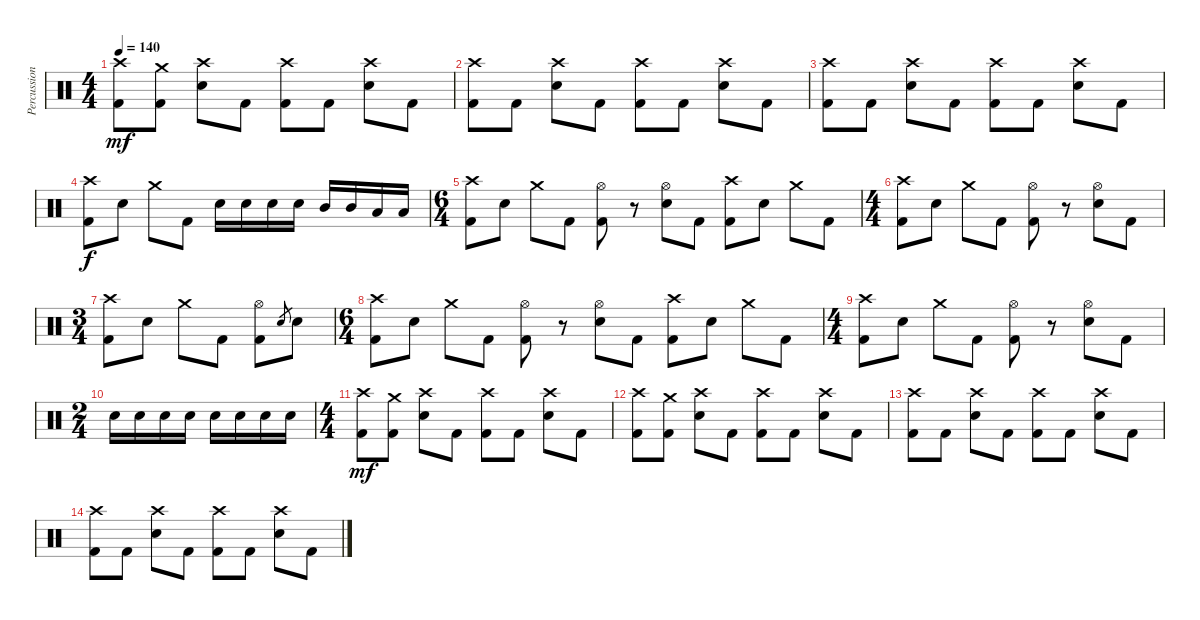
\track ("Percussions" "Percussion") {instrument percussion}
\staff {score}
\articulation defaults
\ts (4 4)
\tempo 140
\clef neutral
\ks c
("Kick (hit) 2" "Crash high (hit)").8{dy mf} ("Kick (hit) 2" "Crash medium (hit)").8 ("Electric Snare (hit)" "Crash high (hit)").8 "Kick (hit) 2".8 ("Kick (hit) 2" "Crash high (hit)").8 "Kick (hit) 2".8 ("Electric Snare (hit)" "Crash high (hit)").8 "Kick (hit) 2".8 |
("Kick (hit) 2" "Crash high (hit)").8 "Kick (hit) 2".8 ("Electric Snare (hit)" "Crash high (hit)").8 "Kick (hit) 2".8 ("Kick (hit) 2" "Crash high (hit)").8 "Kick (hit) 2".8 ("Electric Snare (hit)" "Crash high (hit)").8 "Kick (hit) 2".8 |
("Kick (hit) 2" "Crash high (hit)").8 "Kick (hit) 2".8 ("Electric Snare (hit)" "Crash high (hit)").8 "Kick (hit) 2".8 ("Kick (hit) 2" "Crash high (hit)").8 "Kick (hit) 2".8 ("Electric Snare (hit)" "Crash high (hit)").8 "Kick (hit) 2".8 |
("Kick (hit) 2" "Crash high (hit)").8{dy f} "Electric Snare (hit)".8 "Crash medium (hit)".8 "Kick (hit) 2".8 "Electric Snare (hit)".16 "Electric Snare (hit)".16 "Electric Snare (hit)".16 "Electric Snare (hit)".16 "Mid Tom (hit)".16 "Mid Tom (hit)".16 "Low Floor Tom (hit)".16 "Low Floor Tom (hit)".16 |
\ts (6 4)
("Kick (hit) 2" "Crash high (hit)").8 "Electric Snare (hit)".8 "Crash medium (hit)".8 "Kick (hit) 2".8 ("Kick (hit) 2" "Hi-Hat (open)").8 r.8 ("Electric Snare (hit)" "Hi-Hat (open)").8 "Kick (hit) 2".8 ("Kick (hit) 2" "Crash high (hit)").8 "Electric Snare (hit)".8 "Crash medium (hit)".8 "Kick (hit) 2".8 |
\ts (4 4)
("Kick (hit) 2" "Crash high (hit)").8 "Electric Snare (hit)".8 "Crash medium (hit)".8 "Kick (hit) 2".8 ("Kick (hit) 2" "Hi-Hat (open)").8 r.8 ("Electric Snare (hit)" "Hi-Hat (open)").8 "Kick (hit) 2".8 |
\ts (3 4)
("Kick (hit) 2" "Crash high (hit)").8 "Electric Snare (hit)".8 "Crash medium (hit)".8 "Kick (hit) 2".8 ("Kick (hit) 2" "Hi-Hat (open)").8 "Electric Snare (hit)".8{gr} "Electric Snare (hit)".8 |
\ts (6 4)
("Kick (hit) 2" "Crash high (hit)").8 "Electric Snare (hit)".8 "Crash medium (hit)".8 "Kick (hit) 2".8 ("Kick (hit) 2" "Hi-Hat (open)").8 r.8 ("Electric Snare (hit)" "Hi-Hat (open)").8 "Kick (hit) 2".8 ("Kick (hit) 2" "Crash high (hit)").8 "Electric Snare (hit)".8 "Crash medium (hit)".8 "Kick (hit) 2".8 |
\ts (4 4)
("Kick (hit) 2" "Crash high (hit)").8 "Electric Snare (hit)".8 "Crash medium (hit)".8 "Kick (hit) 2".8 ("Kick (hit) 2" "Hi-Hat (open)").8 r.8 ("Electric Snare (hit)" "Hi-Hat (open)").8 "Kick (hit) 2".8 |
\ts (2 4)
"Electric Snare (hit)".16 "Electric Snare (hit)".16 "Electric Snare (hit)".16 "Electric Snare (hit)".16 "Electric Snare (hit)".16 "Electric Snare (hit)".16 "Electric Snare (hit)".16 "Electric Snare (hit)".16 |
\ts (4 4)
("Kick (hit) 2" "Crash high (hit)").8{dy mf} ("Kick (hit) 2" "Crash medium (hit)").8 ("Electric Snare (hit)" "Crash high (hit)").8 "Kick (hit) 2".8 ("Kick (hit) 2" "Crash high (hit)").8 "Kick (hit) 2".8 ("Electric Snare (hit)" "Crash high (hit)").8 "Kick (hit) 2".8 |
("Kick (hit) 2" "Crash high (hit)").8 ("Kick (hit) 2" "Crash medium (hit)").8 ("Electric Snare (hit)" "Crash high (hit)").8 "Kick (hit) 2".8 ("Kick (hit) 2" "Crash high (hit)").8 "Kick (hit) 2".8 ("Electric Snare (hit)" "Crash high (hit)").8 "Kick (hit) 2".8 |
("Kick (hit) 2" "Crash high (hit)").8 "Kick (hit) 2".8 ("Electric Snare (hit)" "Crash high (hit)").8 "Kick (hit) 2".8 ("Kick (hit) 2" "Crash high (hit)").8 "Kick (hit) 2".8 ("Electric Snare (hit)" "Crash high (hit)").8 "Kick (hit) 2".8 |
("Kick (hit) 2" "Crash high (hit)").8 "Kick (hit) 2".8 ("Electric Snare (hit)" "Crash high (hit)").8 "Kick (hit) 2".8 ("Kick (hit) 2" "Crash high (hit)").8 "Kick (hit) 2".8 ("Electric Snare (hit)" "Crash high (hit)").8 "Kick (hit) 2".8
